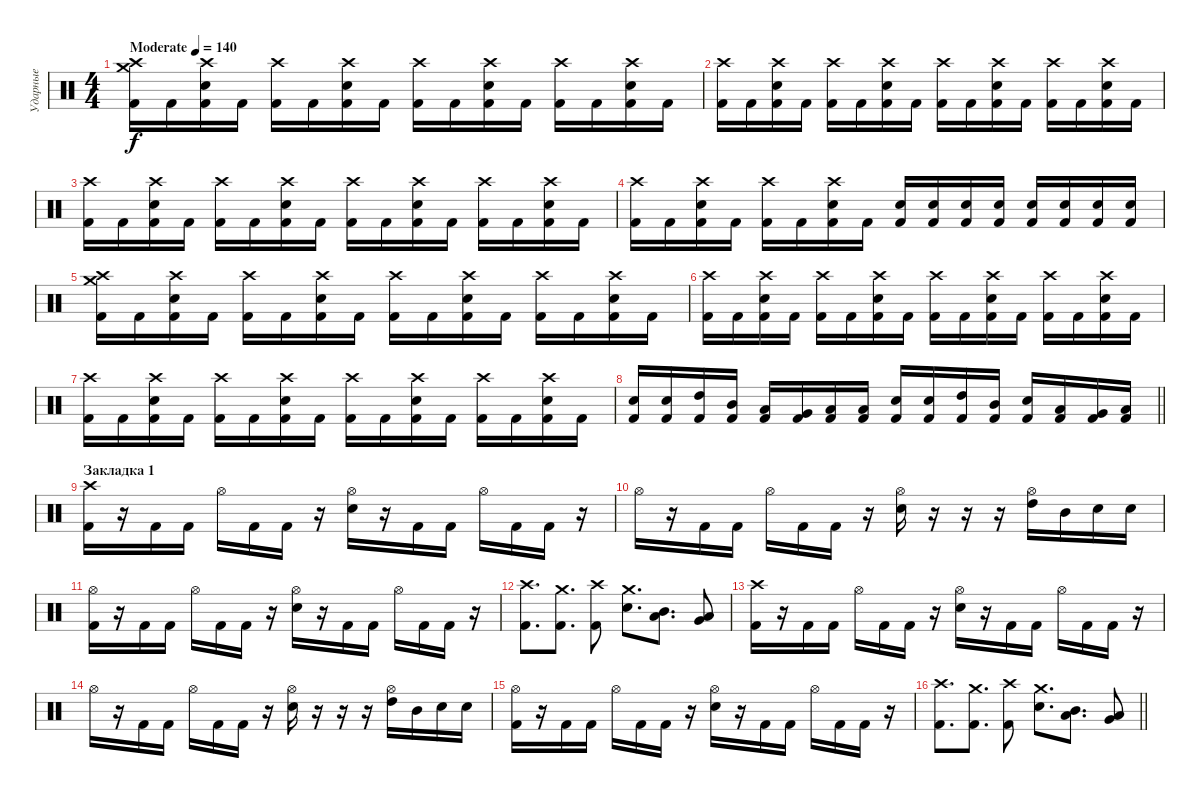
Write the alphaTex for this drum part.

\track ("Ударные" "Ударные") {instrument percussion}
\staff {score}
\articulation defaults
\ts (4 4)
\tempo (140 "Moderate")
\clef neutral
\ks c
("Crash high (hit)" "Crash medium (hit)" "Kick (hit) 2").16{dy f} "Kick (hit) 2".16 ("Crash high (hit)" "Electric Snare (hit)" "Kick (hit) 2").16 "Kick (hit) 2".16 ("Crash high (hit)" "Kick (hit) 2").16 "Kick (hit) 2".16 ("Crash high (hit)" "Electric Snare (hit)" "Kick (hit) 2").16 "Kick (hit) 2".16 ("Crash high (hit)" "Kick (hit) 2").16 "Kick (hit) 2".16 ("Crash high (hit)" "Electric Snare (hit)" "Kick (hit) 2").16 "Kick (hit) 2".16 ("Crash high (hit)" "Kick (hit) 2").16 "Kick (hit) 2".16 ("Crash high (hit)" "Electric Snare (hit)" "Kick (hit) 2").16 "Kick (hit) 2".16 |
("Crash high (hit)" "Kick (hit) 2").16 "Kick (hit) 2".16 ("Crash high (hit)" "Electric Snare (hit)" "Kick (hit) 2").16 "Kick (hit) 2".16 ("Crash high (hit)" "Kick (hit) 2").16 "Kick (hit) 2".16 ("Crash high (hit)" "Electric Snare (hit)" "Kick (hit) 2").16 "Kick (hit) 2".16 ("Crash high (hit)" "Kick (hit) 2").16 "Kick (hit) 2".16 ("Crash high (hit)" "Electric Snare (hit)" "Kick (hit) 2").16 "Kick (hit) 2".16 ("Crash high (hit)" "Kick (hit) 2").16 "Kick (hit) 2".16 ("Crash high (hit)" "Electric Snare (hit)" "Kick (hit) 2").16 "Kick (hit) 2".16 |
("Crash high (hit)" "Kick (hit) 2").16 "Kick (hit) 2".16 ("Crash high (hit)" "Electric Snare (hit)" "Kick (hit) 2").16 "Kick (hit) 2".16 ("Crash high (hit)" "Kick (hit) 2").16 "Kick (hit) 2".16 ("Crash high (hit)" "Electric Snare (hit)" "Kick (hit) 2").16 "Kick (hit) 2".16 ("Crash high (hit)" "Kick (hit) 2").16 "Kick (hit) 2".16 ("Crash high (hit)" "Electric Snare (hit)" "Kick (hit) 2").16 "Kick (hit) 2".16 ("Crash high (hit)" "Kick (hit) 2").16 "Kick (hit) 2".16 ("Crash high (hit)" "Electric Snare (hit)" "Kick (hit) 2").16 "Kick (hit) 2".16 |
("Crash high (hit)" "Kick (hit) 2").16 "Kick (hit) 2".16 ("Crash high (hit)" "Electric Snare (hit)" "Kick (hit) 2").16 "Kick (hit) 2".16 ("Crash high (hit)" "Kick (hit) 2").16 "Kick (hit) 2".16 ("Crash high (hit)" "Electric Snare (hit)" "Kick (hit) 2").16 "Kick (hit) 2".16 ("Electric Snare (hit)" "Kick (hit) 2").16 ("Electric Snare (hit)" "Kick (hit) 2").16 ("Electric Snare (hit)" "Kick (hit) 2").16 ("Electric Snare (hit)" "Kick (hit) 2").16 ("Electric Snare (hit)" "Kick (hit) 2").16 ("Electric Snare (hit)" "Kick (hit) 2").16 ("Electric Snare (hit)" "Kick (hit) 2").16 ("Electric Snare (hit)" "Kick (hit) 2").16 |
("Crash high (hit)" "Crash medium (hit)" "Kick (hit) 2").16 "Kick (hit) 2".16 ("Crash high (hit)" "Electric Snare (hit)" "Kick (hit) 2").16 "Kick (hit) 2".16 ("Crash high (hit)" "Kick (hit) 2").16 "Kick (hit) 2".16 ("Crash high (hit)" "Electric Snare (hit)" "Kick (hit) 2").16 "Kick (hit) 2".16 ("Crash high (hit)" "Kick (hit) 2").16 "Kick (hit) 2".16 ("Crash high (hit)" "Electric Snare (hit)" "Kick (hit) 2").16 "Kick (hit) 2".16 ("Crash high (hit)" "Kick (hit) 2").16 "Kick (hit) 2".16 ("Crash high (hit)" "Electric Snare (hit)" "Kick (hit) 2").16 "Kick (hit) 2".16 |
("Crash high (hit)" "Kick (hit) 2").16 "Kick (hit) 2".16 ("Crash high (hit)" "Electric Snare (hit)" "Kick (hit) 2").16 "Kick (hit) 2".16 ("Crash high (hit)" "Kick (hit) 2").16 "Kick (hit) 2".16 ("Crash high (hit)" "Electric Snare (hit)" "Kick (hit) 2").16 "Kick (hit) 2".16 ("Crash high (hit)" "Kick (hit) 2").16 "Kick (hit) 2".16 ("Crash high (hit)" "Electric Snare (hit)" "Kick (hit) 2").16 "Kick (hit) 2".16 ("Crash high (hit)" "Kick (hit) 2").16 "Kick (hit) 2".16 ("Crash high (hit)" "Electric Snare (hit)" "Kick (hit) 2").16 "Kick (hit) 2".16 |
("Crash high (hit)" "Kick (hit) 2").16 "Kick (hit) 2".16 ("Crash high (hit)" "Electric Snare (hit)" "Kick (hit) 2").16 "Kick (hit) 2".16 ("Crash high (hit)" "Kick (hit) 2").16 "Kick (hit) 2".16 ("Crash high (hit)" "Electric Snare (hit)" "Kick (hit) 2").16 "Kick (hit) 2".16 ("Crash high (hit)" "Kick (hit) 2").16 "Kick (hit) 2".16 ("Crash high (hit)" "Electric Snare (hit)" "Kick (hit) 2").16 "Kick (hit) 2".16 ("Crash high (hit)" "Kick (hit) 2").16 "Kick (hit) 2".16 ("Crash high (hit)" "Electric Snare (hit)" "Kick (hit) 2").16 "Kick (hit) 2".16 |
\barLineRight lightlight
("Electric Snare (hit)" "Kick (hit) 2").16 ("Electric Snare (hit)" "Kick (hit) 2").16 ("High Tom (hit)" "Kick (hit) 2").16 ("Mid Tom (hit)" "Kick (hit) 2").16 ("Low Tom (hit)" "Kick (hit) 2").16 ("Very Low Tom (hit)" "Kick (hit) 2").16 ("Low Floor Tom (hit)" "Kick (hit) 2").16 ("Low Floor Tom (hit)" "Kick (hit) 2").16 ("Electric Snare (hit)" "Kick (hit) 2").16 ("Electric Snare (hit)" "Kick (hit) 2").16 ("High Tom (hit)" "Kick (hit) 2").16 ("Mid Tom (hit)" "Kick (hit) 2").16 ("Electric Snare (hit)" "Kick (hit) 2").16 ("Low Tom (hit)" "Kick (hit) 2").16 ("Very Low Tom (hit)" "Kick (hit) 2").16 ("Low Floor Tom (hit)" "Kick (hit) 2").16 |
\section ("" "Закладка 1")
("Crash high (hit)" "Kick (hit) 2").16 r.16 "Kick (hit) 2".16 "Kick (hit) 2".16 "Hi-Hat (open)".16 "Kick (hit) 2".16 "Kick (hit) 2".16 r.16 ("Hi-Hat (open)" "Electric Snare (hit)").16 r.16 "Kick (hit) 2".16 "Kick (hit) 2".16 "Hi-Hat (open)".16 "Kick (hit) 2".16 "Kick (hit) 2".16 r.16 |
"Hi-Hat (open)".16 r.16 "Kick (hit) 2".16 "Kick (hit) 2".16 "Hi-Hat (open)".16 "Kick (hit) 2".16 "Kick (hit) 2".16 r.16 ("Hi-Hat (open)" "Electric Snare (hit)").16 r.16 r.16 r.16 ("Hi-Hat (open)" "High Tom (hit)").16 "Mid Tom (hit)".16 "Electric Snare (hit)".16 "Electric Snare (hit)".16 |
("Hi-Hat (open)" "Kick (hit) 2").16 r.16 "Kick (hit) 2".16 "Kick (hit) 2".16 "Hi-Hat (open)".16 "Kick (hit) 2".16 "Kick (hit) 2".16 r.16 ("Hi-Hat (open)" "Electric Snare (hit)").16 r.16 "Kick (hit) 2".16 "Kick (hit) 2".16 "Hi-Hat (open)".16 "Kick (hit) 2".16 "Kick (hit) 2".16 r.16 |
("Crash high (hit)" "Kick (hit) 2").8{d} ("Crash medium (hit)" "Kick (hit) 2").8{d} ("Crash high (hit)" "Kick (hit) 2").8 ("Crash medium (hit)" "Electric Snare (hit)").8{d} ("Mid Tom (hit)" "Low Tom (hit)").8{d} ("Very Low Tom (hit)" "Low Floor Tom (hit)").8 |
("Crash high (hit)" "Kick (hit) 2").16 r.16 "Kick (hit) 2".16 "Kick (hit) 2".16 "Hi-Hat (open)".16 "Kick (hit) 2".16 "Kick (hit) 2".16 r.16 ("Hi-Hat (open)" "Electric Snare (hit)").16 r.16 "Kick (hit) 2".16 "Kick (hit) 2".16 "Hi-Hat (open)".16 "Kick (hit) 2".16 "Kick (hit) 2".16 r.16 |
"Hi-Hat (open)".16 r.16 "Kick (hit) 2".16 "Kick (hit) 2".16 "Hi-Hat (open)".16 "Kick (hit) 2".16 "Kick (hit) 2".16 r.16 ("Hi-Hat (open)" "Electric Snare (hit)").16 r.16 r.16 r.16 ("Hi-Hat (open)" "High Tom (hit)").16 "Mid Tom (hit)".16 "Electric Snare (hit)".16 "Electric Snare (hit)".16 |
("Hi-Hat (open)" "Kick (hit) 2").16 r.16 "Kick (hit) 2".16 "Kick (hit) 2".16 "Hi-Hat (open)".16 "Kick (hit) 2".16 "Kick (hit) 2".16 r.16 ("Hi-Hat (open)" "Electric Snare (hit)").16 r.16 "Kick (hit) 2".16 "Kick (hit) 2".16 "Hi-Hat (open)".16 "Kick (hit) 2".16 "Kick (hit) 2".16 r.16 |
\barLineRight lightlight
("Crash high (hit)" "Kick (hit) 2").8{d} ("Crash medium (hit)" "Kick (hit) 2").8{d} ("Crash high (hit)" "Kick (hit) 2").8 ("Crash medium (hit)" "Electric Snare (hit)").8{d} ("Mid Tom (hit)" "Low Tom (hit)").8{d} ("Very Low Tom (hit)" "Low Floor Tom (hit)").8
